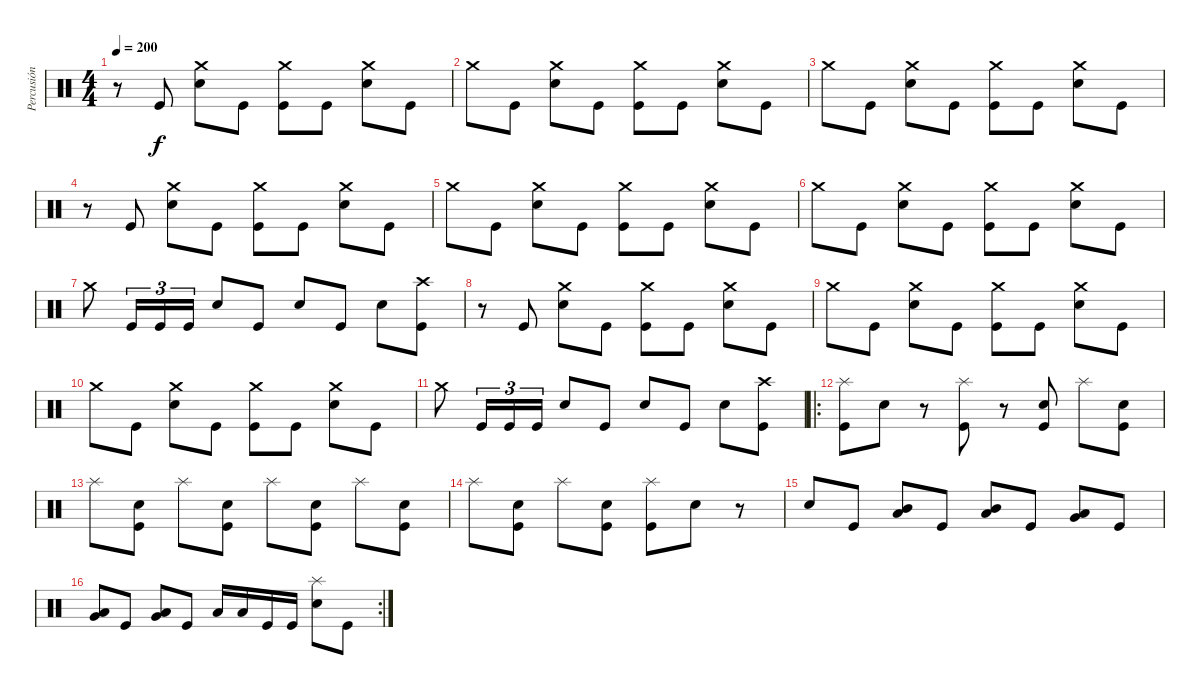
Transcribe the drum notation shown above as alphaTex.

\track ("Percusión" "Percusión") {instrument percussion}
\staff {score}
\articulation defaults
\ts (4 4)
\tempo 200
\clef neutral
\ks c
r.8{dy f} "Kick (hit)".8 ("Electric Snare (hit)" "Crash medium (hit)").8 "Kick (hit)".8 ("Crash medium (hit)" "Kick (hit)").8 "Kick (hit)".8 ("Electric Snare (hit)" "Crash medium (hit)").8 "Kick (hit)".8 |
"Crash medium (hit)".8 "Kick (hit)".8 ("Electric Snare (hit)" "Crash medium (hit)").8 "Kick (hit)".8 ("Crash medium (hit)" "Kick (hit)").8 "Kick (hit)".8 ("Electric Snare (hit)" "Crash medium (hit)").8 "Kick (hit)".8 |
"Crash medium (hit)".8 "Kick (hit)".8 ("Electric Snare (hit)" "Crash medium (hit)").8 "Kick (hit)".8 ("Crash medium (hit)" "Kick (hit)").8 "Kick (hit)".8 ("Electric Snare (hit)" "Crash medium (hit)").8 "Kick (hit)".8 |
r.8 "Kick (hit)".8 ("Electric Snare (hit)" "Crash medium (hit)").8 "Kick (hit)".8 ("Crash medium (hit)" "Kick (hit)").8 "Kick (hit)".8 ("Electric Snare (hit)" "Crash medium (hit)").8 "Kick (hit)".8 |
"Crash medium (hit)".8 "Kick (hit)".8 ("Electric Snare (hit)" "Crash medium (hit)").8 "Kick (hit)".8 ("Crash medium (hit)" "Kick (hit)").8 "Kick (hit)".8 ("Electric Snare (hit)" "Crash medium (hit)").8 "Kick (hit)".8 |
"Crash medium (hit)".8 "Kick (hit)".8 ("Electric Snare (hit)" "Crash medium (hit)").8 "Kick (hit)".8 ("Crash medium (hit)" "Kick (hit)").8 "Kick (hit)".8 ("Electric Snare (hit)" "Crash medium (hit)").8 "Kick (hit)".8 |
"Crash medium (hit)".8 "Kick (hit)".16{tu (3 2)} "Kick (hit)".16{tu (3 2)} "Kick (hit)".16{tu (3 2)} "Electric Snare (hit)".8 "Kick (hit)".8 "Electric Snare (hit)".8 "Kick (hit)".8 "Electric Snare (hit)".8 ("Crash high (hit)" "Kick (hit)").8 |
r.8 "Kick (hit)".8 ("Electric Snare (hit)" "Crash medium (hit)").8 "Kick (hit)".8 ("Crash medium (hit)" "Kick (hit)").8 "Kick (hit)".8 ("Electric Snare (hit)" "Crash medium (hit)").8 "Kick (hit)".8 |
"Crash medium (hit)".8 "Kick (hit)".8 ("Electric Snare (hit)" "Crash medium (hit)").8 "Kick (hit)".8 ("Crash medium (hit)" "Kick (hit)").8 "Kick (hit)".8 ("Electric Snare (hit)" "Crash medium (hit)").8 "Kick (hit)".8 |
"Crash medium (hit)".8 "Kick (hit)".8 ("Electric Snare (hit)" "Crash medium (hit)").8 "Kick (hit)".8 ("Crash medium (hit)" "Kick (hit)").8 "Kick (hit)".8 ("Electric Snare (hit)" "Crash medium (hit)").8 "Kick (hit)".8 |
"Crash medium (hit)".8 "Kick (hit)".16{tu (3 2)} "Kick (hit)".16{tu (3 2)} "Kick (hit)".16{tu (3 2)} "Electric Snare (hit)".8 "Kick (hit)".8 "Electric Snare (hit)".8 "Kick (hit)".8 "Electric Snare (hit)".8 ("Crash high (hit)" "Kick (hit)").8 |
\ro
("Splash (hit)" "Kick (hit)").8 "Electric Snare (hit)".8 r.8 ("Splash (hit)" "Kick (hit)").8 r.8 ("Electric Snare (hit)" "Kick (hit)").8 "Splash (hit)".8 ("Electric Snare (hit)" "Kick (hit)").8 |
"Splash (hit)".8 ("Electric Snare (hit)" "Kick (hit)").8 "Splash (hit)".8 ("Electric Snare (hit)" "Kick (hit)").8 "Splash (hit)".8 ("Electric Snare (hit)" "Kick (hit)").8 "Splash (hit)".8 ("Electric Snare (hit)" "Kick (hit)").8 |
"Splash (hit)".8 ("Electric Snare (hit)" "Kick (hit)").8 "Splash (hit)".8 ("Electric Snare (hit)" "Kick (hit)").8 ("Splash (hit)" "Kick (hit)").8 "Electric Snare (hit)".8 r.8 |
"Electric Snare (hit)".8 "Kick (hit)".8 ("Mid Tom (hit)" "Low Tom (hit)").8 "Kick (hit)".8 ("Mid Tom (hit)" "Low Tom (hit)").8 "Kick (hit)".8 ("Low Tom (hit)" "Very Low Tom (hit)").8 "Kick (hit)".8 |
\rc 2
("Low Tom (hit)" "Very Low Tom (hit)").8 "Kick (hit)".8 ("Very Low Tom (hit)" "Low Floor Tom (hit)").8 "Kick (hit)".8 "Low Tom (hit)".16 "Low Tom (hit)".16 "Kick (hit)".16 "Kick (hit)".16 ("Electric Snare (hit)" "Splash (hit)").8 "Kick (hit)".8
